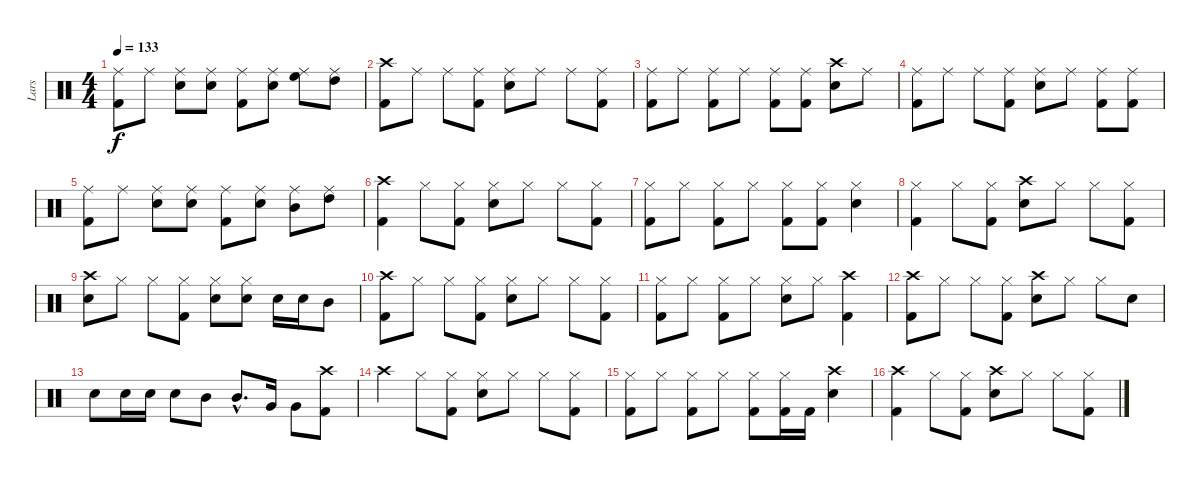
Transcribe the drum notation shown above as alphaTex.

\track ("Lars" "Lars") {instrument percussion}
\staff {score}
\articulation defaults
\ts (4 4)
\tempo 133
\clef neutral
\ks c
("Ride (middle)" "Kick (hit) 2").8{dy f} "Ride (middle)".8 ("Ride (middle)" "Electric Snare (hit)").8 ("Ride (middle)" "Electric Snare (hit)").8 ("Ride (middle)" "Kick (hit) 2").8 ("Ride (middle)" "Electric Snare (hit)").8 ("Ride (middle)" "High Floor Tom (hit)").8 ("Ride (middle)" "High Tom (hit)").8 |
("Crash high (hit)" "Kick (hit) 2").8 "Ride (middle)".8 "Ride (middle)".8 ("Ride (middle)" "Kick (hit) 2").8 ("Ride (middle)" "Electric Snare (hit)").8 "Ride (middle)".8 "Ride (middle)".8 ("Ride (middle)" "Kick (hit) 2").8 |
("Ride (middle)" "Kick (hit) 2").8 "Ride (middle)".8 ("Ride (middle)" "Kick (hit) 2").8 "Ride (middle)".8 ("Ride (middle)" "Kick (hit) 2").8 ("Ride (middle)" "Kick (hit) 2").8 ("Crash high (hit)" "Electric Snare (hit)").8 "Ride (middle)".8 |
("Ride (middle)" "Kick (hit) 2").8 "Ride (middle)".8 "Ride (middle)".8 ("Ride (middle)" "Kick (hit) 2").8 ("Ride (middle)" "Electric Snare (hit)").8 "Ride (middle)".8 ("Ride (middle)" "Kick (hit) 2").8 ("Ride (middle)" "Kick (hit) 2").8 |
("Ride (middle)" "Kick (hit) 2").8 "Ride (middle)".8 ("Ride (middle)" "Electric Snare (hit)").8 ("Ride (middle)" "Electric Snare (hit)").8 ("Ride (middle)" "Kick (hit) 2").8 ("Ride (middle)" "Electric Snare (hit)").8 ("Ride (middle)" "Mid Tom (hit)").8 ("Ride (middle)" "High Tom (hit)").8 |
("Crash high (hit)" "Kick (hit) 2").4 "Hi-Hat (closed)".8 ("Hi-Hat (closed)" "Kick (hit) 2").8 ("Hi-Hat (closed)" "Electric Snare (hit)").8 "Hi-Hat (closed)".8 "Hi-Hat (closed)".8 ("Hi-Hat (closed)" "Kick (hit) 2").8 |
("Hi-Hat (closed)" "Kick (hit) 2").8 "Hi-Hat (closed)".8 ("Hi-Hat (closed)" "Kick (hit) 2").8 "Hi-Hat (closed)".8 ("Hi-Hat (closed)" "Kick (hit) 2").8 ("Hi-Hat (closed)" "Kick (hit) 2").8 ("Hi-Hat (closed)" "Electric Snare (hit)").4 |
("Hi-Hat (closed)" "Kick (hit) 2").4 "Hi-Hat (closed)".8 ("Hi-Hat (closed)" "Kick (hit) 2").8 ("Crash high (hit)" "Electric Snare (hit)").8 "Hi-Hat (closed)".8 "Hi-Hat (closed)".8 ("Hi-Hat (closed)" "Kick (hit) 2").8 |
("Crash high (hit)" "Electric Snare (hit)").8 "Hi-Hat (closed)".8 "Hi-Hat (closed)".8 ("Hi-Hat (closed)" "Kick (hit) 2").8 ("Hi-Hat (closed)" "Electric Snare (hit)").8 ("Hi-Hat (closed)" "Electric Snare (hit)").8 "Electric Snare (hit)".16 "Electric Snare (hit)".16 "Mid Tom (hit)".8 |
("Crash high (hit)" "Kick (hit) 2").8 "Hi-Hat (closed)".8 "Hi-Hat (closed)".8 ("Hi-Hat (closed)" "Kick (hit) 2").8 ("Hi-Hat (closed)" "Electric Snare (hit)").8 "Hi-Hat (closed)".8 "Hi-Hat (closed)".8 ("Hi-Hat (closed)" "Kick (hit) 2").8 |
("Hi-Hat (closed)" "Kick (hit) 2").8 "Hi-Hat (closed)".8 ("Hi-Hat (closed)" "Kick (hit) 2").8 "Hi-Hat (closed)".8 ("Hi-Hat (closed)" "Electric Snare (hit)").8 "Hi-Hat (closed)".8 ("Crash high (hit)" "Kick (hit) 2").4 |
("Crash high (hit)" "Kick (hit) 2").8 "Hi-Hat (closed)".8 "Hi-Hat (closed)".8 ("Hi-Hat (closed)" "Kick (hit) 2").8 ("Crash high (hit)" "Electric Snare (hit)").8 "Hi-Hat (closed)".8 "Hi-Hat (closed)".8 "Snare (hit) 2".8 |
"Electric Snare (hit)".8 "Electric Snare (hit)".16 "Electric Snare (hit)".16 "Electric Snare (hit)".8 "Mid Tom (hit)".8 "Mid Tom (hit)"{hac}.8{d} "Very Low Tom (hit)".16 "Very Low Tom (hit)".8 ("Crash high (hit)" "Kick (hit) 2").8 |
"Crash high (hit)".4 "Hi-Hat (closed)".8 ("Hi-Hat (closed)" "Kick (hit) 2").8 ("Hi-Hat (closed)" "Electric Snare (hit)").8 "Hi-Hat (closed)".8 "Hi-Hat (closed)".8 ("Hi-Hat (closed)" "Kick (hit) 2").8 |
("Hi-Hat (closed)" "Kick (hit) 2").8 "Hi-Hat (closed)".8 ("Hi-Hat (closed)" "Kick (hit) 2").8 "Hi-Hat (closed)".8 ("Hi-Hat (closed)" "Kick (hit) 2").8 ("Hi-Hat (closed)" "Kick (hit) 2").16 "Kick (hit) 2".16 ("Crash high (hit)" "Electric Snare (hit)").4 |
("Crash high (hit)" "Kick (hit) 2").4 "Hi-Hat (closed)".8 ("Hi-Hat (closed)" "Kick (hit) 2").8 ("Crash high (hit)" "Electric Snare (hit)").8 "Hi-Hat (closed)".8 "Hi-Hat (closed)".8 ("Hi-Hat (closed)" "Kick (hit) 2").8
